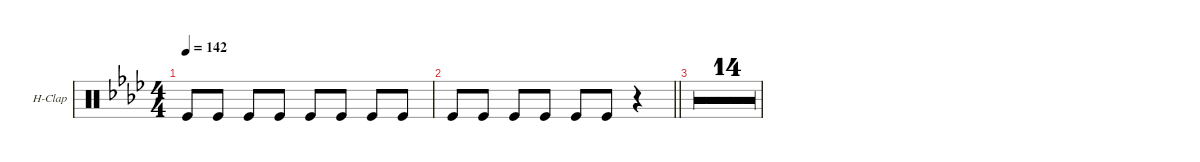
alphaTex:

\defaultSystemsLayout 4
\hideDynamics
\bracketExtendMode groupsimilarinstruments
\firstSystemTrackNameOrientation horizontal
\otherSystemsTrackNameOrientation horizontal
\track ("Hand Clap" "H-Clap") {multiBarRest instrument percussion}
\staff {score}
\articulation defaults
\ts (4 4)
\tempo 142
\clef neutral
\ks ab "Kick (hit)".8{dy fff} "Kick (hit)".8 "Kick (hit)".8 "Kick (hit)".8 "Kick (hit)".8 "Kick (hit)".8 "Kick (hit)".8 "Kick (hit)".8
|
\barLineRight lightlight "Kick (hit)".8 "Kick (hit)".8 "Kick (hit)".8 "Kick (hit)".8 "Kick (hit)".8 "Kick (hit)".8
r.4 |
r.1 |
r.1 |
r.1 |
r.1 |
r.1 |
r.1 |
r.1 |
\barLineRight lightlight
r.1 |
r.1 |
r.1 |
r.1 |
r.1 |
r.1 |
r.1
